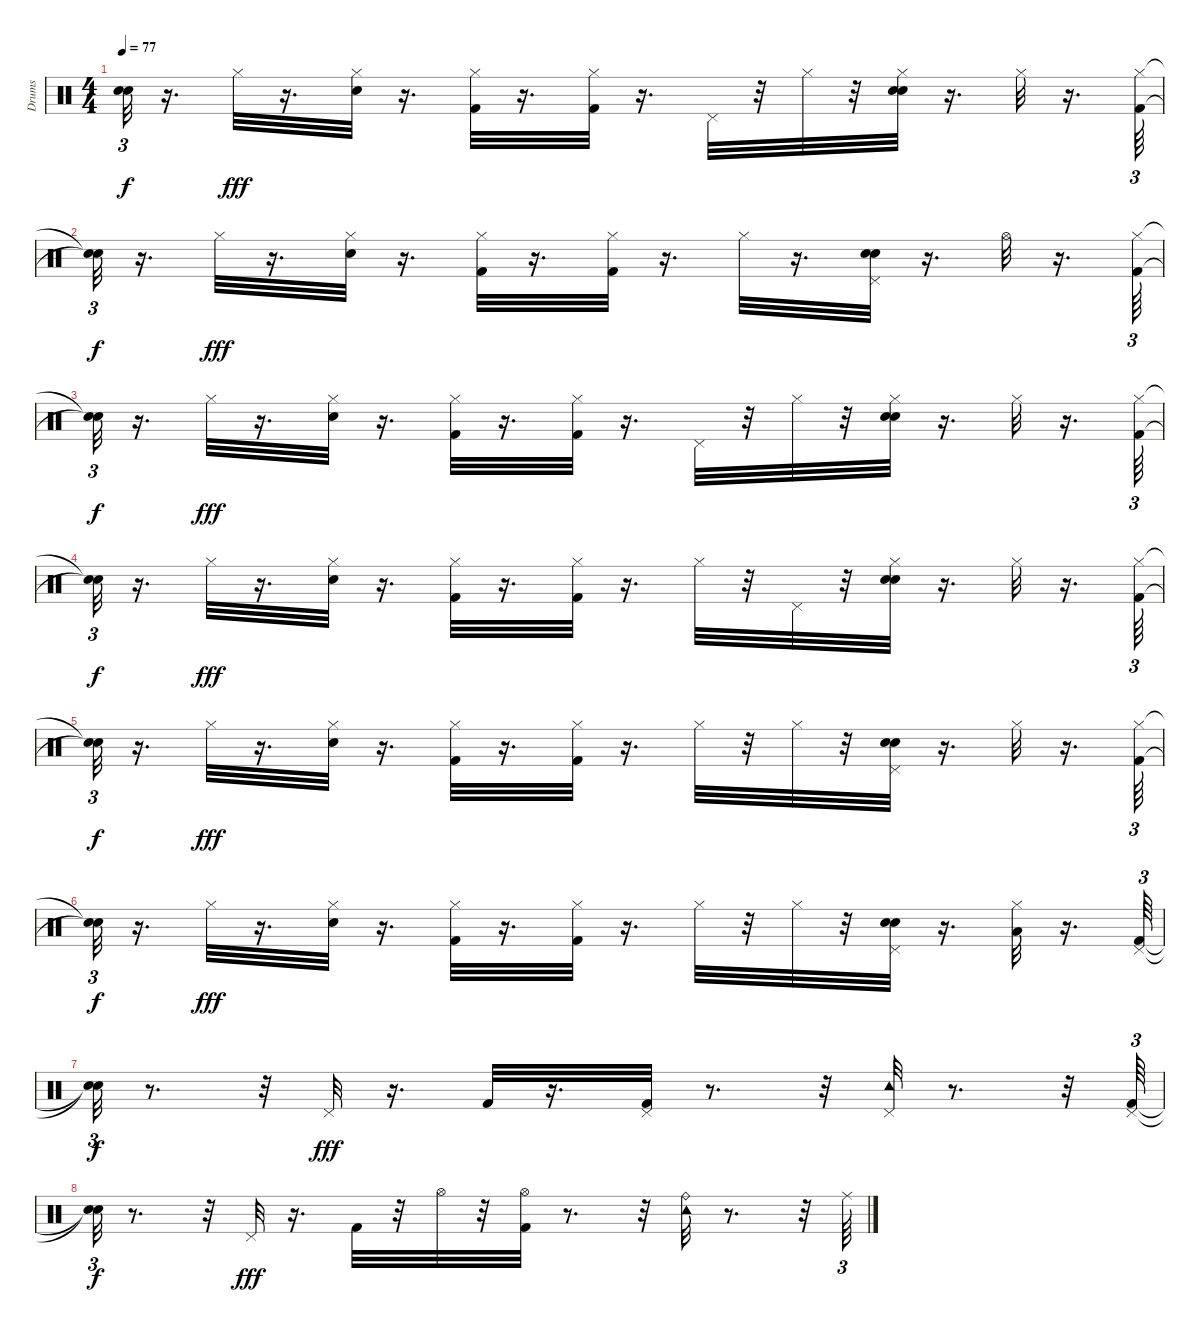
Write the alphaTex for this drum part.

\track ("Drums   " "Drums   ") {instrument percussion}
\staff {score}
\articulation defaults
\ts (4 4)
\tempo 77
\clef neutral
\ks c
("Snare (hit)"{t} "Snare (hit)"{t}).32{tu (3 2) dy f} r.16{d} "Hi-Hat (closed)".32{dy fff} r.16{d} ("Snare (hit) 2" "Hi-Hat (closed)").32 r.16{d} ("Kick (hit) 2" "Hi-Hat (closed)").32 r.16{d} ("Kick (hit) 2" "Hi-Hat (closed)").32 r.16{d} "Pedal Hi-Hat (hit)".32 r.32 "Hi-Hat (closed)".32 r.32 ("Snare (hit) 2" "Hand Clap (hit)" "Hi-Hat (closed)").32 r.16{d} "Hi-Hat (closed)".32 r.16{d} ("Kick (hit) 2" "Hi-Hat (closed)").64{tu (3 2)} |
("Snare (hit)"{t} "Snare (hit)"{t}).32{tu (3 2) dy f} r.16{d} "Hi-Hat (closed)".32{dy fff} r.16{d} ("Snare (hit) 2" "Hi-Hat (closed)").32 r.16{d} ("Kick (hit) 2" "Hi-Hat (closed)").32 r.16{d} ("Kick (hit) 2" "Hi-Hat (closed)").32 r.16{d} "Hi-Hat (closed)".32 r.16{d} ("Snare (hit) 2" "Hand Clap (hit)" "Pedal Hi-Hat (hit)").32 r.16{d} "Hi-Hat (open)".32 r.16{d} ("Kick (hit) 2" "Hi-Hat (closed)").64{tu (3 2)} |
("Snare (hit)"{t} "Snare (hit)"{t}).32{tu (3 2) dy f} r.16{d} "Hi-Hat (closed)".32{dy fff} r.16{d} ("Snare (hit) 2" "Hi-Hat (closed)").32 r.16{d} ("Kick (hit) 2" "Hi-Hat (closed)").32 r.16{d} ("Kick (hit) 2" "Hi-Hat (closed)").32 r.16{d} "Pedal Hi-Hat (hit)".32 r.32 "Hi-Hat (closed)".32 r.32 ("Snare (hit) 2" "Hand Clap (hit)" "Hi-Hat (closed)").32 r.16{d} "Hi-Hat (closed)".32 r.16{d} ("Kick (hit) 2" "Hi-Hat (closed)").64{tu (3 2)} |
("Snare (hit)"{t} "Snare (hit)"{t}).32{tu (3 2) dy f} r.16{d} "Hi-Hat (closed)".32{dy fff} r.16{d} ("Snare (hit) 2" "Hi-Hat (closed)").32 r.16{d} ("Kick (hit) 2" "Hi-Hat (closed)").32 r.16{d} ("Kick (hit) 2" "Hi-Hat (closed)").32 r.16{d} "Hi-Hat (closed)".32 r.32 "Pedal Hi-Hat (hit)".32 r.32 ("Snare (hit) 2" "Hand Clap (hit)" "Hi-Hat (closed)").32 r.16{d} "Hi-Hat (closed)".32 r.16{d} ("Kick (hit) 2" "Hi-Hat (closed)").64{tu (3 2)} |
("Snare (hit)"{t} "Snare (hit)"{t}).32{tu (3 2) dy f} r.16{d} "Hi-Hat (closed)".32{dy fff} r.16{d} ("Snare (hit) 2" "Hi-Hat (closed)").32 r.16{d} ("Kick (hit) 2" "Hi-Hat (closed)").32 r.16{d} ("Kick (hit) 2" "Hi-Hat (closed)").32 r.16{d} "Hi-Hat (closed)".32 r.32 "Hi-Hat (closed)".32 r.32 ("Snare (hit) 2" "Hand Clap (hit)" "Pedal Hi-Hat (hit)").32 r.16{d} "Hi-Hat (closed)".32 r.16{d} ("Kick (hit) 2" "Hi-Hat (closed)").64{tu (3 2)} |
("Snare (hit)"{t} "Snare (hit)"{t}).32{tu (3 2) dy f} r.16{d} "Hi-Hat (closed)".32{dy fff} r.16{d} ("Snare (hit) 2" "Hi-Hat (closed)").32 r.16{d} ("Kick (hit) 2" "Hi-Hat (closed)").32 r.16{d} ("Kick (hit) 2" "Hi-Hat (closed)").32 r.16{d} "Hi-Hat (closed)".32 r.32 "Hi-Hat (closed)".32 r.32 ("Snare (hit) 2" "Hand Clap (hit)" "Pedal Hi-Hat (hit)").32 r.16{d} ("Hi-Hat (closed)" "Low Tom (hit)").32 r.16{d} ("Kick (hit) 2" "Pedal Hi-Hat (hit)").64{tu (3 2)} |
("Snare (hit)"{t} "Snare (hit)"{t}).32{tu (3 2) dy f} r.8{d} r.32 "Pedal Hi-Hat (hit)".32{dy fff} r.16{d} "Kick (hit) 2".32 r.16{d} ("Kick (hit) 2" "Pedal Hi-Hat (hit)").32 r.8{d} r.32 ("Pedal Hi-Hat (hit)" "Tambourine (hit)").32 r.8{d} r.32 ("Kick (hit) 2" "Pedal Hi-Hat (hit)").64{tu (3 2)} |
("Snare (hit)"{t} "Snare (hit)"{t}).32{tu (3 2) dy f} r.8{d} r.32 "Pedal Hi-Hat (hit)".32{dy fff} r.16{d} "Kick (hit) 2".32 r.32 "Hi-Hat (open)".32 r.32 ("Kick (hit) 2" "Hi-Hat (open)").32 r.8{d} r.32 ("Ride (bell)" "Tambourine (hit)").32 r.8{d} r.32 "Ride (middle)".64{tu (3 2)}
